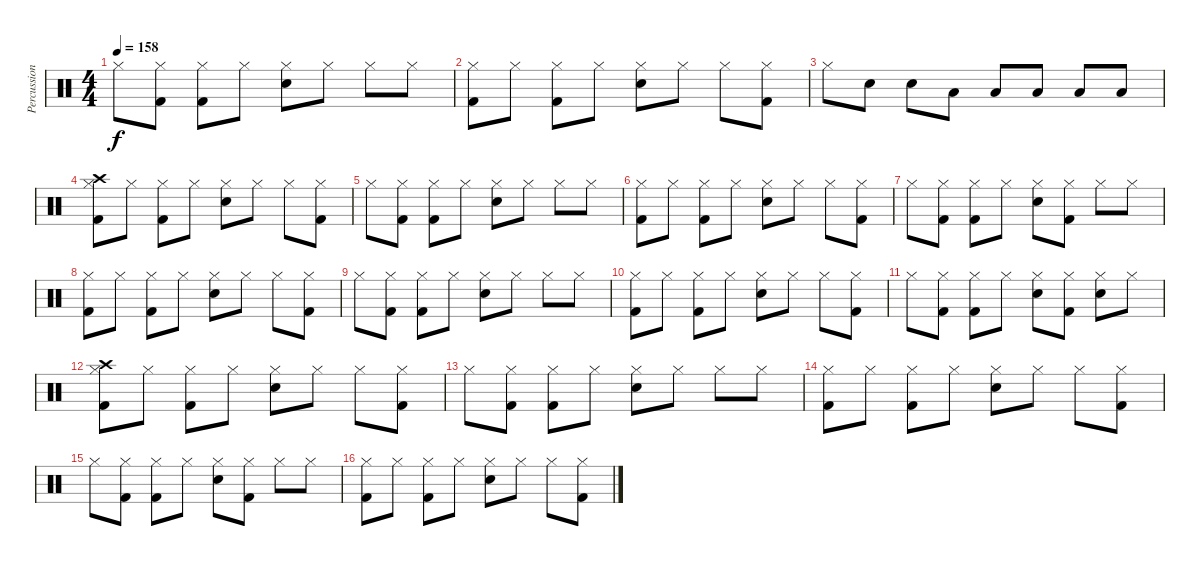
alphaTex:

\track ("Percussion" "Percussion") {instrument percussion}
\staff {score}
\articulation defaults
\ts (4 4)
\tempo 158
\clef neutral
\ks c "Hi-Hat (closed)".8{dy f}
("Hi-Hat (closed)" "Kick (hit) 2").8 ("Hi-Hat (closed)" "Kick (hit) 2").8 "Hi-Hat (closed)".8 ("Hi-Hat (closed)" "Electric Snare (hit)").8 "Hi-Hat (closed)".8 "Hi-Hat (closed)".8 "Hi-Hat (closed)".8 |
("Hi-Hat (closed)" "Kick (hit) 2").8 "Hi-Hat (closed)".8 ("Hi-Hat (closed)" "Kick (hit) 2").8 "Hi-Hat (closed)".8 ("Hi-Hat (closed)" "Snare (hit) 2").8 "Hi-Hat (closed)".8 "Hi-Hat (closed)".8 ("Hi-Hat (closed)" "Kick (hit) 2").8 |
"Hi-Hat (closed)".8 "Snare (hit) 2".8 "Snare (hit) 2".8 "Low Tom (hit)".8 "Low Tom (hit)".8 "Low Floor Tom (hit)".8 "Low Floor Tom (hit)".8 "Low Floor Tom (hit)".8 |
("Hi-Hat (closed)" "Kick (hit) 2" "Crash high (hit)").8 "Hi-Hat (closed)".8 ("Hi-Hat (closed)" "Kick (hit) 2").8 "Hi-Hat (closed)".8 ("Hi-Hat (closed)" "Electric Snare (hit)").8 "Hi-Hat (closed)".8 "Hi-Hat (closed)".8 ("Hi-Hat (closed)" "Kick (hit) 2").8 |
"Hi-Hat (closed)".8 ("Hi-Hat (closed)" "Kick (hit) 2").8 ("Hi-Hat (closed)" "Kick (hit) 2").8 "Hi-Hat (closed)".8 ("Hi-Hat (closed)" "Electric Snare (hit)").8 "Hi-Hat (closed)".8 "Hi-Hat (closed)".8 "Hi-Hat (closed)".8 |
("Hi-Hat (closed)" "Kick (hit) 2").8 "Hi-Hat (closed)".8 ("Hi-Hat (closed)" "Kick (hit) 2").8 "Hi-Hat (closed)".8 ("Hi-Hat (closed)" "Electric Snare (hit)").8 "Hi-Hat (closed)".8 "Hi-Hat (closed)".8 ("Hi-Hat (closed)" "Kick (hit) 2").8 |
"Hi-Hat (closed)".8 ("Hi-Hat (closed)" "Kick (hit) 2").8 ("Hi-Hat (closed)" "Kick (hit) 2").8 "Hi-Hat (closed)".8 ("Hi-Hat (closed)" "Electric Snare (hit)").8 ("Hi-Hat (closed)" "Kick (hit) 2").8 "Hi-Hat (closed)".8 "Hi-Hat (closed)".8 |
("Hi-Hat (closed)" "Kick (hit) 2").8 "Hi-Hat (closed)".8 ("Hi-Hat (closed)" "Kick (hit) 2").8 "Hi-Hat (closed)".8 ("Hi-Hat (closed)" "Electric Snare (hit)").8 "Hi-Hat (closed)".8 "Hi-Hat (closed)".8 ("Hi-Hat (closed)" "Kick (hit) 2").8 |
"Hi-Hat (closed)".8 ("Hi-Hat (closed)" "Kick (hit) 2").8 ("Hi-Hat (closed)" "Kick (hit) 2").8 "Hi-Hat (closed)".8 ("Hi-Hat (closed)" "Electric Snare (hit)").8 "Hi-Hat (closed)".8 "Hi-Hat (closed)".8 "Hi-Hat (closed)".8 |
("Hi-Hat (closed)" "Kick (hit) 2").8 "Hi-Hat (closed)".8 ("Hi-Hat (closed)" "Kick (hit) 2").8 "Hi-Hat (closed)".8 ("Hi-Hat (closed)" "Snare (hit) 2").8 "Hi-Hat (closed)".8 "Hi-Hat (closed)".8 ("Hi-Hat (closed)" "Kick (hit) 2").8 |
"Hi-Hat (closed)".8 ("Hi-Hat (closed)" "Kick (hit) 2").8 ("Hi-Hat (closed)" "Kick (hit) 2").8 "Hi-Hat (closed)".8 ("Hi-Hat (closed)" "Electric Snare (hit)").8 ("Hi-Hat (closed)" "Kick (hit) 2").8 ("Hi-Hat (closed)" "Electric Snare (hit)").8 "Hi-Hat (closed)".8 |
("Hi-Hat (closed)" "Kick (hit) 2" "Crash high (hit)").8 "Hi-Hat (closed)".8 ("Hi-Hat (closed)" "Kick (hit) 2").8 "Hi-Hat (closed)".8 ("Hi-Hat (closed)" "Electric Snare (hit)").8 "Hi-Hat (closed)".8 "Hi-Hat (closed)".8 ("Hi-Hat (closed)" "Kick (hit) 2").8 |
"Hi-Hat (closed)".8 ("Hi-Hat (closed)" "Kick (hit) 2").8 ("Hi-Hat (closed)" "Kick (hit) 2").8 "Hi-Hat (closed)".8 ("Hi-Hat (closed)" "Electric Snare (hit)").8 "Hi-Hat (closed)".8 "Hi-Hat (closed)".8 "Hi-Hat (closed)".8 |
("Hi-Hat (closed)" "Kick (hit) 2").8 "Hi-Hat (closed)".8 ("Hi-Hat (closed)" "Kick (hit) 2").8 "Hi-Hat (closed)".8 ("Hi-Hat (closed)" "Electric Snare (hit)").8 "Hi-Hat (closed)".8 "Hi-Hat (closed)".8 ("Hi-Hat (closed)" "Kick (hit) 2").8 |
"Hi-Hat (closed)".8 ("Hi-Hat (closed)" "Kick (hit) 2").8 ("Hi-Hat (closed)" "Kick (hit) 2").8 "Hi-Hat (closed)".8 ("Hi-Hat (closed)" "Electric Snare (hit)").8 ("Hi-Hat (closed)" "Kick (hit) 2").8 "Hi-Hat (closed)".8 "Hi-Hat (closed)".8 |
("Hi-Hat (closed)" "Kick (hit) 2").8 "Hi-Hat (closed)".8 ("Hi-Hat (closed)" "Kick (hit) 2").8 "Hi-Hat (closed)".8 ("Hi-Hat (closed)" "Electric Snare (hit)").8 "Hi-Hat (closed)".8 "Hi-Hat (closed)".8 ("Hi-Hat (closed)" "Kick (hit) 2").8
